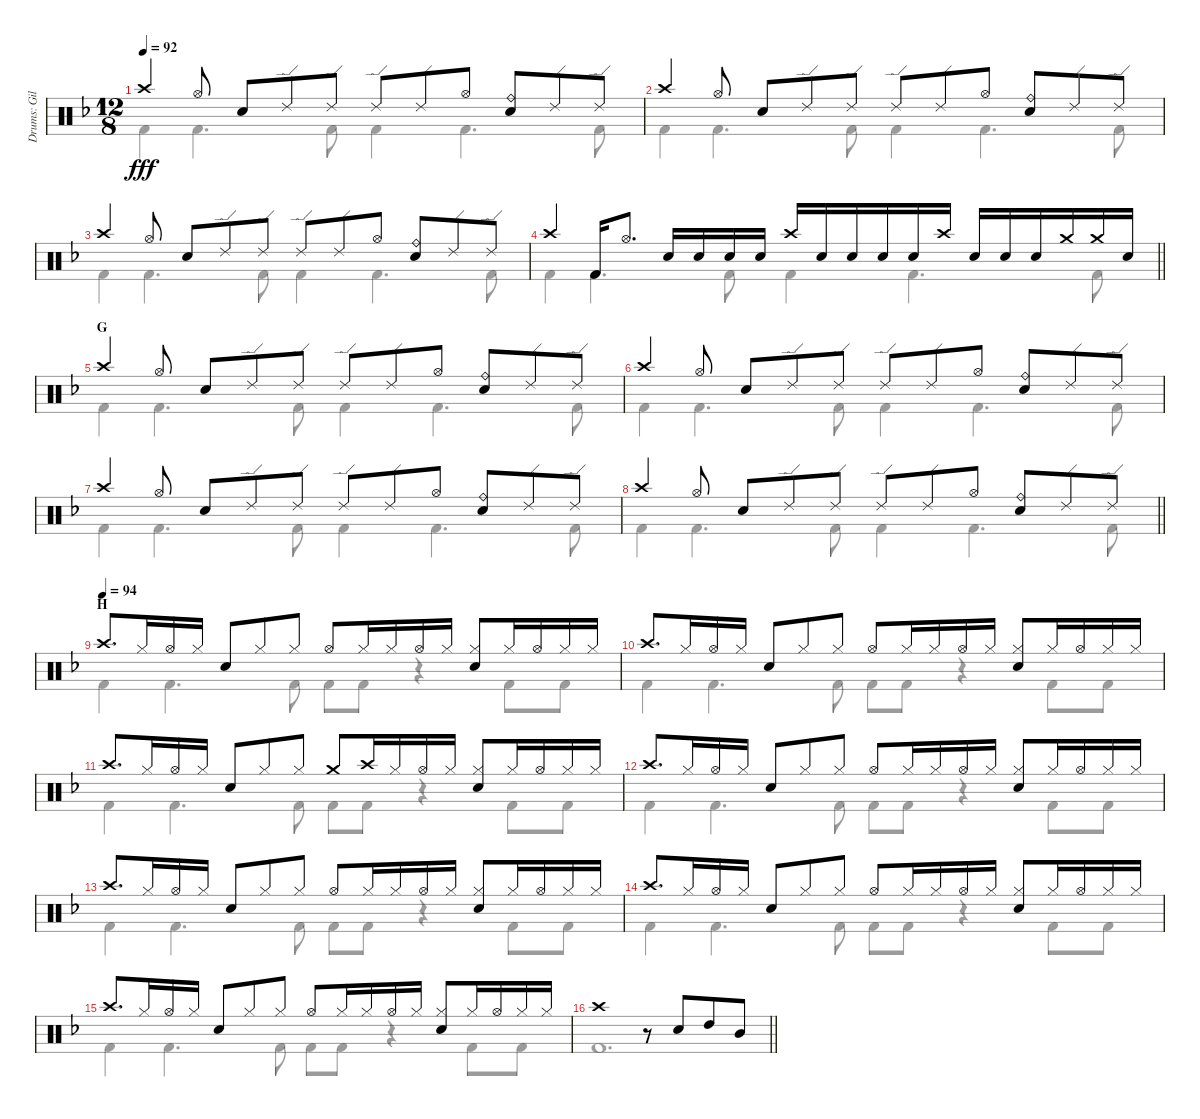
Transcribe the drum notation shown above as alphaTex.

\track ("Drums: Gil" "Drums: Gil") {instrument percussion}
\staff {score}
\articulation defaults
\voice
\ts (12 8)
\tempo 92
\clef neutral
\ks f "Crash high (hit)".4{dy fff} "Hi-Hat (open)".8 "Snare (hit) 2".8 "Ride (edge) 2".8 "Ride (edge) 2".8 "Ride (edge) 2".8 "Ride (edge) 2".8 "Hi-Hat (open)".8
("Ride (bell)" "Snare (hit) 2").8 "Ride (edge) 2".8 "Ride (edge) 2".8 |
"Crash high (hit)".4 "Hi-Hat (open)".8 "Snare (hit) 2".8 "Ride (edge) 2".8 "Ride (edge) 2".8 "Ride (edge) 2".8 "Ride (edge) 2".8 "Hi-Hat (open)".8 ("Ride (bell)" "Snare (hit) 2").8 "Ride (edge) 2".8 "Ride (edge) 2".8 |
"Crash high (hit)".4 "Hi-Hat (open)".8 "Snare (hit) 2".8 "Ride (edge) 2".8 "Ride (edge) 2".8 "Ride (edge) 2".8 "Ride (edge) 2".8 "Hi-Hat (open)".8 ("Ride (bell)" "Snare (hit) 2").8 "Ride (edge) 2".8 "Ride (edge) 2".8 |
\barLineRight lightlight "Crash high (hit)".4 "Kick (hit) 2".16 "Hi-Hat (open)".8{d} "Snare (hit) 2".16 "Snare (hit) 2".16 "Snare (hit) 2".16 "Snare (hit) 2".16 "Crash high (hit)".16 "Snare (hit) 2".16 "Snare (hit) 2".16 "Snare (hit) 2".16 "Snare (hit) 2".16 "Crash high (hit)".16 "Snare (hit) 2".16 "Snare (hit) 2".16 "Snare (hit) 2".16 "Crash medium (hit)".16 "Crash medium (hit)".16 "Snare (hit) 2".16
|
\section ("" "G")
"Crash high (hit)".4 "Hi-Hat (open)".8 "Snare (hit) 2".8 "Ride (edge) 2".8 "Ride (edge) 2".8 "Ride (edge) 2".8 "Ride (edge) 2".8 "Hi-Hat (open)".8 ("Ride (bell)" "Snare (hit) 2").8 "Ride (edge) 2".8 "Ride (edge) 2".8 |
"Crash high (hit)".4 "Hi-Hat (open)".8 "Snare (hit) 2".8 "Ride (edge) 2".8 "Ride (edge) 2".8 "Ride (edge) 2".8 "Ride (edge) 2".8 "Hi-Hat (open)".8 ("Ride (bell)" "Snare (hit) 2").8 "Ride (edge) 2".8 "Ride (edge) 2".8 |
"Crash high (hit)".4 "Hi-Hat (open)".8 "Snare (hit) 2".8 "Ride (edge) 2".8 "Ride (edge) 2".8 "Ride (edge) 2".8 "Ride (edge) 2".8 "Hi-Hat (open)".8 ("Ride (bell)" "Snare (hit) 2").8 "Ride (edge) 2".8 "Ride (edge) 2".8 |
\barLineRight lightlight "Crash high (hit)".4 "Hi-Hat (open)".8 "Snare (hit) 2".8 "Ride (edge) 2".8 "Ride (edge) 2".8 "Ride (edge) 2".8 "Ride (edge) 2".8 "Hi-Hat (open)".8
("Ride (bell)" "Snare (hit) 2").8 "Ride (edge) 2".8 "Ride (edge) 2".8 |
\section ("" "H")
\tempo (94)
"Crash high (hit)".8{d} "Hi-Hat (closed)".16 "Hi-Hat (open)".16 "Hi-Hat (closed)".16 "Snare (hit) 2".8 "Hi-Hat (closed)".8 "Hi-Hat (closed)".8 "Hi-Hat (open)".8 "Hi-Hat (closed)".16 "Hi-Hat (closed)".16 "Hi-Hat (open)".16 "Hi-Hat (closed)".16 ("Hi-Hat (closed)" "Snare (hit) 2").8 "Hi-Hat (closed)".16 "Hi-Hat (open)".16 "Hi-Hat (closed)".16 "Hi-Hat (closed)".16 |
"Crash high (hit)".8{d} "Hi-Hat (closed)".16 "Hi-Hat (open)".16 "Hi-Hat (closed)".16 "Snare (hit) 2".8 "Hi-Hat (closed)".8 "Hi-Hat (closed)".8 "Hi-Hat (open)".8 "Hi-Hat (closed)".16 "Hi-Hat (closed)".16 "Hi-Hat (open)".16 "Hi-Hat (closed)".16 ("Hi-Hat (closed)" "Snare (hit) 2").8 "Hi-Hat (closed)".16 "Hi-Hat (open)".16 "Hi-Hat (closed)".16 "Hi-Hat (closed)".16 |
"Crash high (hit)".8{d} "Hi-Hat (closed)".16 "Hi-Hat (open)".16 "Hi-Hat (closed)".16 "Snare (hit) 2".8 "Hi-Hat (closed)".8 "Hi-Hat (closed)".8 "Crash medium (hit)".8 "Crash high (hit)".16 "Hi-Hat (closed)".16 "Hi-Hat (open)".16 "Hi-Hat (closed)".16 ("Hi-Hat (closed)" "Snare (hit) 2").8 "Hi-Hat (closed)".16 "Hi-Hat (open)".16 "Hi-Hat (closed)".16 "Hi-Hat (closed)".16 |
"Crash high (hit)".8{d} "Hi-Hat (closed)".16 "Hi-Hat (open)".16 "Hi-Hat (closed)".16 "Snare (hit) 2".8 "Hi-Hat (closed)".8 "Hi-Hat (closed)".8 "Hi-Hat (open)".8 "Hi-Hat (closed)".16 "Hi-Hat (closed)".16 "Hi-Hat (open)".16 "Hi-Hat (closed)".16 ("Hi-Hat (closed)" "Snare (hit) 2").8 "Hi-Hat (closed)".16 "Hi-Hat (open)".16 "Hi-Hat (closed)".16 "Hi-Hat (closed)".16 |
"Crash high (hit)".8{d} "Hi-Hat (closed)".16 "Hi-Hat (open)".16 "Hi-Hat (closed)".16 "Snare (hit) 2".8 "Hi-Hat (closed)".8 "Hi-Hat (closed)".8 "Hi-Hat (open)".8 "Hi-Hat (closed)".16 "Hi-Hat (closed)".16 "Hi-Hat (open)".16 "Hi-Hat (closed)".16 ("Hi-Hat (closed)" "Snare (hit) 2").8 "Hi-Hat (closed)".16 "Hi-Hat (open)".16 "Hi-Hat (closed)".16 "Hi-Hat (closed)".16 |
"Crash high (hit)".8{d} "Hi-Hat (closed)".16 "Hi-Hat (open)".16 "Hi-Hat (closed)".16 "Snare (hit) 2".8 "Hi-Hat (closed)".8 "Hi-Hat (closed)".8 "Hi-Hat (open)".8 "Hi-Hat (closed)".16 "Hi-Hat (closed)".16 "Hi-Hat (open)".16 "Hi-Hat (closed)".16 ("Hi-Hat (closed)" "Snare (hit) 2").8 "Hi-Hat (closed)".16 "Hi-Hat (open)".16 "Hi-Hat (closed)".16 "Hi-Hat (closed)".16 |
"Crash high (hit)".8{d} "Hi-Hat (closed)".16 "Hi-Hat (open)".16 "Hi-Hat (closed)".16 "Snare (hit) 2".8 "Hi-Hat (closed)".8 "Hi-Hat (closed)".8 "Hi-Hat (open)".8 "Hi-Hat (closed)".16 "Hi-Hat (closed)".16 "Hi-Hat (open)".16 "Hi-Hat (closed)".16 ("Hi-Hat (closed)" "Snare (hit) 2").8 "Hi-Hat (closed)".16 "Hi-Hat (open)".16 "Hi-Hat (closed)".16 "Hi-Hat (closed)".16 |
\barLineRight lightlight "Crash high (hit)".1
r.8 "Snare (hit) 2".8 "High Tom (hit)".8 "Mid Tom (hit)".8
\voice
\clef neutral
\ottava regular
\simile none
\ks f "Kick (hit) 2".4{dy fff} "Kick (hit) 2".4{d} "Kick (hit) 2".8 "Kick (hit) 2".4 "Kick (hit) 2".4{d} "Kick (hit) 2".8
|
"Kick (hit) 2".4 "Kick (hit) 2".4{d} "Kick (hit) 2".8 "Kick (hit) 2".4 "Kick (hit) 2".4{d} "Kick (hit) 2".8 |
"Kick (hit) 2".4 "Kick (hit) 2".4{d} "Kick (hit) 2".8 "Kick (hit) 2".4 "Kick (hit) 2".4{d} "Kick (hit) 2".8 |
\barLineRight lightlight "Kick (hit) 2".4 "Kick (hit) 2".4{d} "Kick (hit) 2".8 "Kick (hit) 2".4 "Kick (hit) 2".4{d} "Kick (hit) 2".8
|
"Kick (hit) 2".4 "Kick (hit) 2".4{d} "Kick (hit) 2".8 "Kick (hit) 2".4 "Kick (hit) 2".4{d} "Kick (hit) 2".8 |
"Kick (hit) 2".4 "Kick (hit) 2".4{d} "Kick (hit) 2".8 "Kick (hit) 2".4 "Kick (hit) 2".4{d} "Kick (hit) 2".8 |
"Kick (hit) 2".4 "Kick (hit) 2".4{d} "Kick (hit) 2".8 "Kick (hit) 2".4 "Kick (hit) 2".4{d} "Kick (hit) 2".8 |
\barLineRight lightlight "Kick (hit) 2".4 "Kick (hit) 2".4{d} "Kick (hit) 2".8 "Kick (hit) 2".4 "Kick (hit) 2".4{d} "Kick (hit) 2".8
|
"Kick (hit) 2".4 "Kick (hit) 2".4{d} "Kick (hit) 2".8 "Kick (hit) 2".8 "Kick (hit) 2".8 r.4 "Kick (hit) 2".8 "Kick (hit) 2".8 |
"Kick (hit) 2".4 "Kick (hit) 2".4{d} "Kick (hit) 2".8 "Kick (hit) 2".8 "Kick (hit) 2".8 r.4 "Kick (hit) 2".8 "Kick (hit) 2".8 |
"Kick (hit) 2".4 "Kick (hit) 2".4{d} "Kick (hit) 2".8 "Kick (hit) 2".8 "Kick (hit) 2".8 r.4 "Kick (hit) 2".8 "Kick (hit) 2".8 |
"Kick (hit) 2".4 "Kick (hit) 2".4{d} "Kick (hit) 2".8 "Kick (hit) 2".8 "Kick (hit) 2".8 r.4 "Kick (hit) 2".8 "Kick (hit) 2".8 |
"Kick (hit) 2".4 "Kick (hit) 2".4{d} "Kick (hit) 2".8 "Kick (hit) 2".8 "Kick (hit) 2".8 r.4 "Kick (hit) 2".8 "Kick (hit) 2".8 |
"Kick (hit) 2".4 "Kick (hit) 2".4{d} "Kick (hit) 2".8 "Kick (hit) 2".8 "Kick (hit) 2".8 r.4 "Kick (hit) 2".8 "Kick (hit) 2".8 |
"Kick (hit) 2".4 "Kick (hit) 2".4{d} "Kick (hit) 2".8 "Kick (hit) 2".8 "Kick (hit) 2".8 r.4 "Kick (hit) 2".8 "Kick (hit) 2".8 |
\barLineRight lightlight "Kick (hit) 2".1{d}
